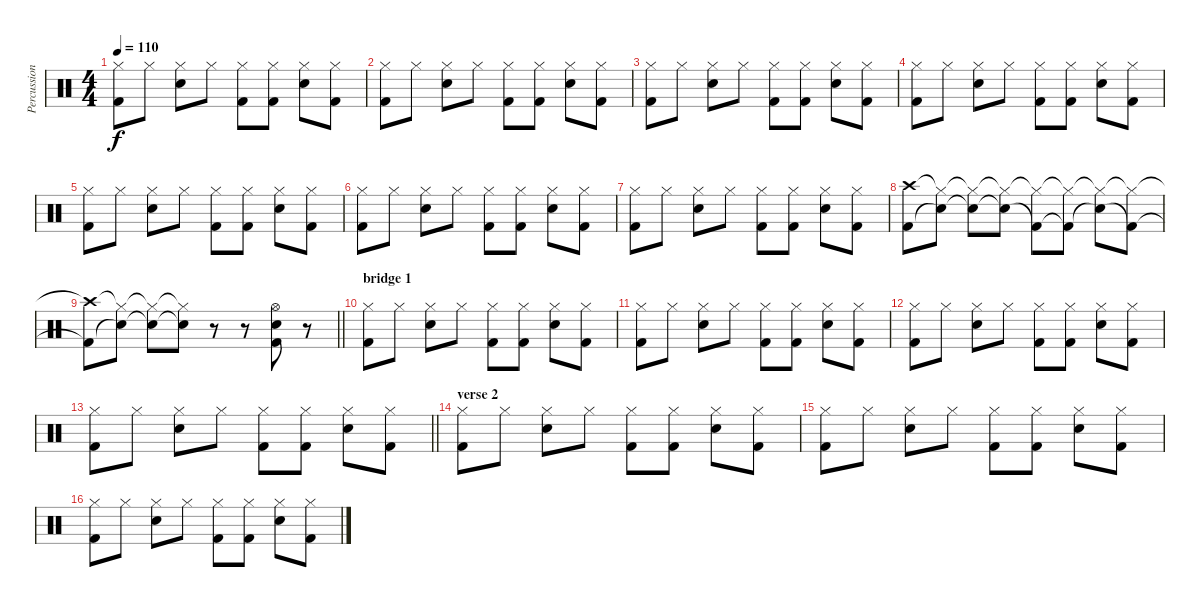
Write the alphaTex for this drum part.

\track ("Percussions" "Percussion") {instrument percussion}
\staff {score}
\articulation defaults
\ts (4 4)
\tempo 110
\clef neutral
\ks c
("Hi-Hat (closed)" "Kick (hit) 2").8{dy f} "Hi-Hat (closed)".8 ("Hi-Hat (closed)" "Electric Snare (hit)").8 "Hi-Hat (closed)".8 ("Hi-Hat (closed)" "Kick (hit) 2").8 ("Hi-Hat (closed)" "Kick (hit) 2").8 ("Hi-Hat (closed)" "Electric Snare (hit)").8 ("Hi-Hat (closed)" "Kick (hit) 2").8 |
("Hi-Hat (closed)" "Kick (hit) 2").8 "Hi-Hat (closed)".8 ("Hi-Hat (closed)" "Electric Snare (hit)").8 "Hi-Hat (closed)".8 ("Hi-Hat (closed)" "Kick (hit) 2").8 ("Hi-Hat (closed)" "Kick (hit) 2").8 ("Hi-Hat (closed)" "Electric Snare (hit)").8 ("Hi-Hat (closed)" "Kick (hit) 2").8 |
("Hi-Hat (closed)" "Kick (hit) 2").8 "Hi-Hat (closed)".8 ("Hi-Hat (closed)" "Electric Snare (hit)").8 "Hi-Hat (closed)".8 ("Hi-Hat (closed)" "Kick (hit) 2").8 ("Hi-Hat (closed)" "Kick (hit) 2").8 ("Hi-Hat (closed)" "Electric Snare (hit)").8 ("Hi-Hat (closed)" "Kick (hit) 2").8 |
("Hi-Hat (closed)" "Kick (hit) 2").8 "Hi-Hat (closed)".8 ("Hi-Hat (closed)" "Electric Snare (hit)").8 "Hi-Hat (closed)".8 ("Hi-Hat (closed)" "Kick (hit) 2").8 ("Hi-Hat (closed)" "Kick (hit) 2").8 ("Hi-Hat (closed)" "Electric Snare (hit)").8 ("Hi-Hat (closed)" "Kick (hit) 2").8 |
("Hi-Hat (closed)" "Kick (hit) 2").8 "Hi-Hat (closed)".8 ("Hi-Hat (closed)" "Electric Snare (hit)").8 "Hi-Hat (closed)".8 ("Hi-Hat (closed)" "Kick (hit) 2").8 ("Hi-Hat (closed)" "Kick (hit) 2").8 ("Hi-Hat (closed)" "Electric Snare (hit)").8 ("Hi-Hat (closed)" "Kick (hit) 2").8 |
("Hi-Hat (closed)" "Kick (hit) 2").8 "Hi-Hat (closed)".8 ("Hi-Hat (closed)" "Electric Snare (hit)").8 "Hi-Hat (closed)".8 ("Hi-Hat (closed)" "Kick (hit) 2").8 ("Hi-Hat (closed)" "Kick (hit) 2").8 ("Hi-Hat (closed)" "Electric Snare (hit)").8 ("Hi-Hat (closed)" "Kick (hit) 2").8 |
("Hi-Hat (closed)" "Kick (hit) 2").8 "Hi-Hat (closed)".8 ("Hi-Hat (closed)" "Electric Snare (hit)").8 "Hi-Hat (closed)".8 ("Hi-Hat (closed)" "Kick (hit) 2").8 ("Hi-Hat (closed)" "Kick (hit) 2").8 ("Hi-Hat (closed)" "Electric Snare (hit)").8 ("Hi-Hat (closed)" "Kick (hit) 2").8 |
("Crash high (hit)" "Kick (hit) 2").8 ("Hi-Hat (closed)"{t} "Snare (hit)"{t}).8 ("Hi-Hat (closed)"{t} "Snare (hit)"{t}).8 ("Hi-Hat (closed)"{t} "Snare (hit)"{t}).8 ("Hi-Hat (closed)"{t} "Kick (hit) 2"{t}).8 ("Hi-Hat (closed)"{t} "Kick (hit) 2"{t}).8 ("Hi-Hat (closed)"{t} "Snare (hit)"{t}).8 ("Hi-Hat (closed)"{t} "Kick (hit) 2"{t}).8 |
\barLineRight lightlight
("Crash high (hit)"{t} "Kick (hit) 2"{t}).8 ("Hi-Hat (closed)"{t} "Snare (hit)"{t}).8 ("Hi-Hat (closed)"{t} "Snare (hit)"{t}).8 ("Hi-Hat (closed)"{t} "Snare (hit)"{t}).8 r.8 r.8 ("Hi-Hat (open)" "Electric Snare (hit)" "Kick (hit) 2").8 r.8 |
\section ("" "bridge 1")
("Hi-Hat (closed)" "Kick (hit) 2").8 "Hi-Hat (closed)".8 ("Hi-Hat (closed)" "Electric Snare (hit)").8 "Hi-Hat (closed)".8 ("Hi-Hat (closed)" "Kick (hit) 2").8 ("Hi-Hat (closed)" "Kick (hit) 2").8 ("Hi-Hat (closed)" "Electric Snare (hit)").8 ("Hi-Hat (closed)" "Kick (hit) 2").8 |
("Hi-Hat (closed)" "Kick (hit) 2").8 "Hi-Hat (closed)".8 ("Hi-Hat (closed)" "Electric Snare (hit)").8 "Hi-Hat (closed)".8 ("Hi-Hat (closed)" "Kick (hit) 2").8 ("Hi-Hat (closed)" "Kick (hit) 2").8 ("Hi-Hat (closed)" "Electric Snare (hit)").8 ("Hi-Hat (closed)" "Kick (hit) 2").8 |
("Hi-Hat (closed)" "Kick (hit) 2").8 "Hi-Hat (closed)".8 ("Hi-Hat (closed)" "Electric Snare (hit)").8 "Hi-Hat (closed)".8 ("Hi-Hat (closed)" "Kick (hit) 2").8 ("Hi-Hat (closed)" "Kick (hit) 2").8 ("Hi-Hat (closed)" "Electric Snare (hit)").8 ("Hi-Hat (closed)" "Kick (hit) 2").8 |
\barLineRight lightlight
("Hi-Hat (closed)" "Kick (hit) 2").8 "Hi-Hat (closed)".8 ("Hi-Hat (closed)" "Electric Snare (hit)").8 "Hi-Hat (closed)".8 ("Hi-Hat (closed)" "Kick (hit) 2").8 ("Hi-Hat (closed)" "Kick (hit) 2").8 ("Hi-Hat (closed)" "Electric Snare (hit)").8 ("Hi-Hat (closed)" "Kick (hit) 2").8 |
\section ("" "verse 2")
("Hi-Hat (closed)" "Kick (hit) 2").8 "Hi-Hat (closed)".8 ("Hi-Hat (closed)" "Electric Snare (hit)").8 "Hi-Hat (closed)".8 ("Hi-Hat (closed)" "Kick (hit) 2").8 ("Hi-Hat (closed)" "Kick (hit) 2").8 ("Hi-Hat (closed)" "Electric Snare (hit)").8 ("Hi-Hat (closed)" "Kick (hit) 2").8 |
("Hi-Hat (closed)" "Kick (hit) 2").8 "Hi-Hat (closed)".8 ("Hi-Hat (closed)" "Electric Snare (hit)").8 "Hi-Hat (closed)".8 ("Hi-Hat (closed)" "Kick (hit) 2").8 ("Hi-Hat (closed)" "Kick (hit) 2").8 ("Hi-Hat (closed)" "Electric Snare (hit)").8 ("Hi-Hat (closed)" "Kick (hit) 2").8 |
("Hi-Hat (closed)" "Kick (hit) 2").8 "Hi-Hat (closed)".8 ("Hi-Hat (closed)" "Electric Snare (hit)").8 "Hi-Hat (closed)".8 ("Hi-Hat (closed)" "Kick (hit) 2").8 ("Hi-Hat (closed)" "Kick (hit) 2").8 ("Hi-Hat (closed)" "Electric Snare (hit)").8 ("Hi-Hat (closed)" "Kick (hit) 2").8
